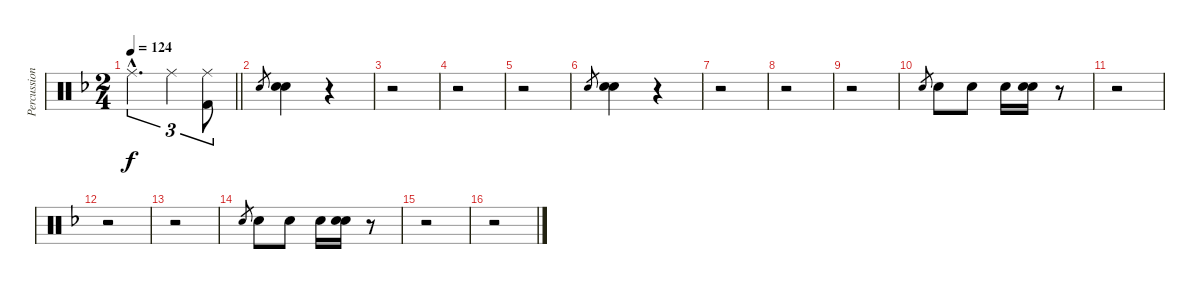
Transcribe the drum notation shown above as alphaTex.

\track ("Percussions" "Percussion") {instrument percussion}
\staff {score}
\articulation defaults
\ts (2 4)
\tempo 124
\clef neutral
\barLineRight lightlight
\ks dminor "Ride (middle)"{hac}.4{d tu (3 2) dy f} "Ride (middle)".4{tu (3 2)}
("Ride (middle)" "Kick (hit) 2").8{tu (3 2)} |
"Snare (hit) 2".8{gr} ("Snare (hit) 2" "Electric Snare (hit)").4 r.4 |
r.2 |
r.2 |
r.2 |
"Snare (hit) 2".8{gr} ("Snare (hit) 2" "Electric Snare (hit)").4 r.4 |
r.2 |
r.2 |
r.2 |
"Snare (hit) 2".8{gr} "Snare (hit) 2".8 "Snare (hit) 2".8 "Snare (hit) 2".16 ("Snare (hit) 2" "Electric Snare (hit)").16 r.8 |
r.2 |
r.2 |
r.2 |
"Snare (hit) 2".8{gr} "Snare (hit) 2".8 "Snare (hit) 2".8 "Snare (hit) 2".16 ("Snare (hit) 2" "Electric Snare (hit)").16 r.8 |
r.2 |
r.2
